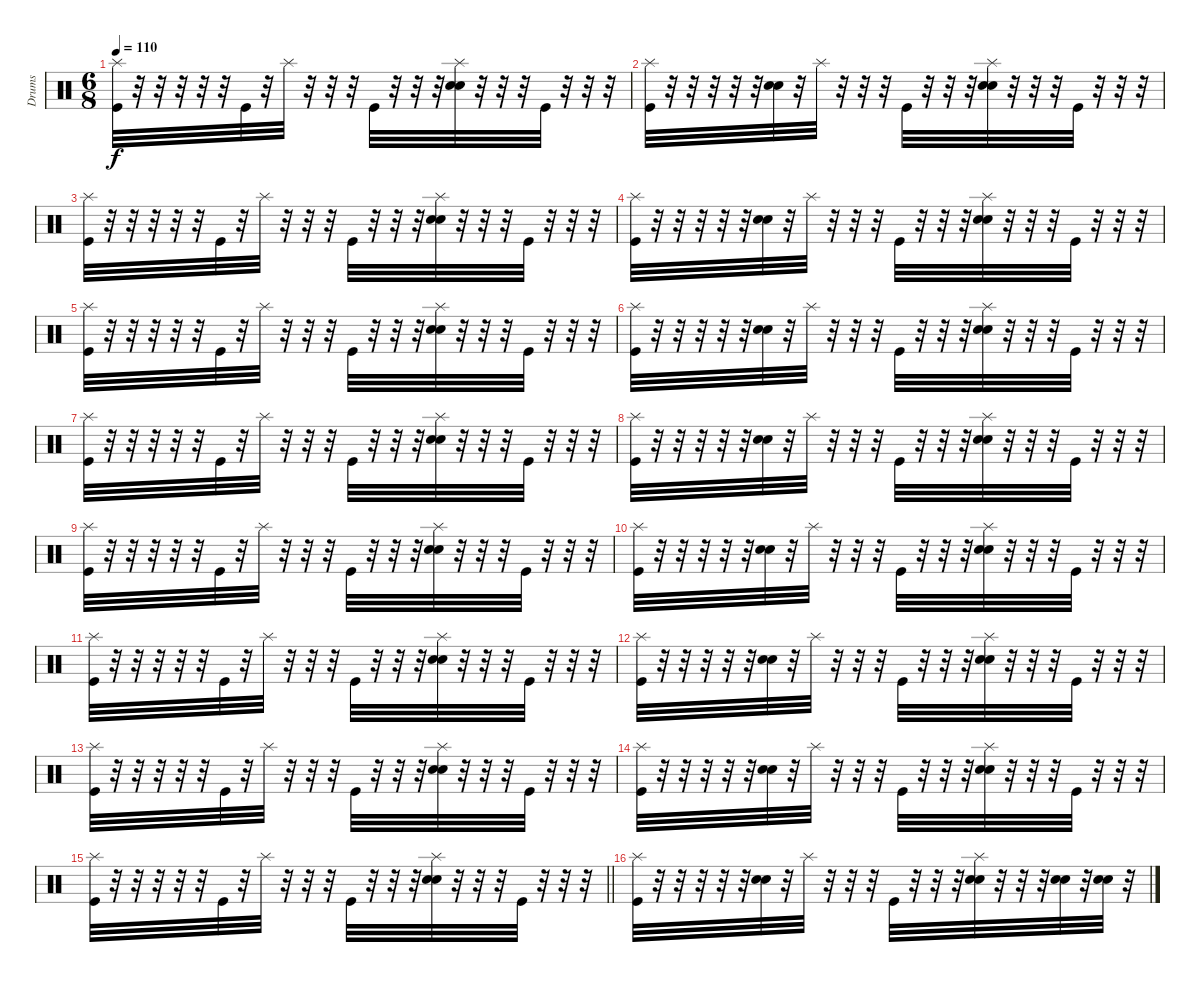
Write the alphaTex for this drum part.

\track ("Drums" "Drums") {instrument percussion}
\staff {score}
\articulation defaults
\ts (6 8)
\tempo 110
\clef neutral
\ks c
("Splash (hit)" "Kick (hit)").32{dy f} r.32 r.32 r.32 r.32 r.32 "Kick (hit)".32 r.32 "Splash (hit)".32 r.32 r.32 r.32 "Kick (hit)".32 r.32 r.32 r.32 ("Splash (hit)" "Electric Snare (hit)" "Electric Snare (hit)").32 r.32 r.32 r.32 "Kick (hit)".32 r.32 r.32 r.32 |
("Splash (hit)" "Kick (hit)").32 r.32 r.32 r.32 r.32 r.32 ("Electric Snare (hit)" "Electric Snare (hit)").32 r.32 "Splash (hit)".32 r.32 r.32 r.32 "Kick (hit)".32 r.32 r.32 r.32 ("Splash (hit)" "Electric Snare (hit)" "Electric Snare (hit)").32 r.32 r.32 r.32 "Kick (hit)".32 r.32 r.32 r.32 |
("Splash (hit)" "Kick (hit)").32 r.32 r.32 r.32 r.32 r.32 "Kick (hit)".32 r.32 "Splash (hit)".32 r.32 r.32 r.32 "Kick (hit)".32 r.32 r.32 r.32 ("Splash (hit)" "Electric Snare (hit)" "Electric Snare (hit)").32 r.32 r.32 r.32 "Kick (hit)".32 r.32 r.32 r.32 |
("Splash (hit)" "Kick (hit)").32 r.32 r.32 r.32 r.32 r.32 ("Electric Snare (hit)" "Electric Snare (hit)").32 r.32 "Splash (hit)".32 r.32 r.32 r.32 "Kick (hit)".32 r.32 r.32 r.32 ("Splash (hit)" "Electric Snare (hit)" "Electric Snare (hit)").32 r.32 r.32 r.32 "Kick (hit)".32 r.32 r.32 r.32 |
("Splash (hit)" "Kick (hit)").32 r.32 r.32 r.32 r.32 r.32 "Kick (hit)".32 r.32 "Splash (hit)".32 r.32 r.32 r.32 "Kick (hit)".32 r.32 r.32 r.32 ("Splash (hit)" "Electric Snare (hit)" "Electric Snare (hit)").32 r.32 r.32 r.32 "Kick (hit)".32 r.32 r.32 r.32 |
("Splash (hit)" "Kick (hit)").32 r.32 r.32 r.32 r.32 r.32 ("Electric Snare (hit)" "Electric Snare (hit)").32 r.32 "Splash (hit)".32 r.32 r.32 r.32 "Kick (hit)".32 r.32 r.32 r.32 ("Splash (hit)" "Electric Snare (hit)" "Electric Snare (hit)").32 r.32 r.32 r.32 "Kick (hit)".32 r.32 r.32 r.32 |
("Splash (hit)" "Kick (hit)").32 r.32 r.32 r.32 r.32 r.32 "Kick (hit)".32 r.32 "Splash (hit)".32 r.32 r.32 r.32 "Kick (hit)".32 r.32 r.32 r.32 ("Splash (hit)" "Electric Snare (hit)" "Electric Snare (hit)").32 r.32 r.32 r.32 "Kick (hit)".32 r.32 r.32 r.32 |
("Splash (hit)" "Kick (hit)").32 r.32 r.32 r.32 r.32 r.32 ("Electric Snare (hit)" "Electric Snare (hit)").32 r.32 "Splash (hit)".32 r.32 r.32 r.32 "Kick (hit)".32 r.32 r.32 r.32 ("Splash (hit)" "Electric Snare (hit)" "Electric Snare (hit)").32 r.32 r.32 r.32 "Kick (hit)".32 r.32 r.32 r.32 |
("Splash (hit)" "Kick (hit)").32 r.32 r.32 r.32 r.32 r.32 "Kick (hit)".32 r.32 "Splash (hit)".32 r.32 r.32 r.32 "Kick (hit)".32 r.32 r.32 r.32 ("Splash (hit)" "Electric Snare (hit)" "Electric Snare (hit)").32 r.32 r.32 r.32 "Kick (hit)".32 r.32 r.32 r.32 |
("Splash (hit)" "Kick (hit)").32 r.32 r.32 r.32 r.32 r.32 ("Electric Snare (hit)" "Electric Snare (hit)").32 r.32 "Splash (hit)".32 r.32 r.32 r.32 "Kick (hit)".32 r.32 r.32 r.32 ("Splash (hit)" "Electric Snare (hit)" "Electric Snare (hit)").32 r.32 r.32 r.32 "Kick (hit)".32 r.32 r.32 r.32 |
("Splash (hit)" "Kick (hit)").32 r.32 r.32 r.32 r.32 r.32 "Kick (hit)".32 r.32 "Splash (hit)".32 r.32 r.32 r.32 "Kick (hit)".32 r.32 r.32 r.32 ("Splash (hit)" "Electric Snare (hit)" "Electric Snare (hit)").32 r.32 r.32 r.32 "Kick (hit)".32 r.32 r.32 r.32 |
("Splash (hit)" "Kick (hit)").32 r.32 r.32 r.32 r.32 r.32 ("Electric Snare (hit)" "Electric Snare (hit)").32 r.32 "Splash (hit)".32 r.32 r.32 r.32 "Kick (hit)".32 r.32 r.32 r.32 ("Splash (hit)" "Electric Snare (hit)" "Electric Snare (hit)").32 r.32 r.32 r.32 "Kick (hit)".32 r.32 r.32 r.32 |
("Splash (hit)" "Kick (hit)").32 r.32 r.32 r.32 r.32 r.32 "Kick (hit)".32 r.32 "Splash (hit)".32 r.32 r.32 r.32 "Kick (hit)".32 r.32 r.32 r.32 ("Splash (hit)" "Electric Snare (hit)" "Electric Snare (hit)").32 r.32 r.32 r.32 "Kick (hit)".32 r.32 r.32 r.32 |
("Splash (hit)" "Kick (hit)").32 r.32 r.32 r.32 r.32 r.32 ("Electric Snare (hit)" "Electric Snare (hit)").32 r.32 "Splash (hit)".32 r.32 r.32 r.32 "Kick (hit)".32 r.32 r.32 r.32 ("Splash (hit)" "Electric Snare (hit)" "Electric Snare (hit)").32 r.32 r.32 r.32 "Kick (hit)".32 r.32 r.32 r.32 |
\barLineRight lightlight
("Splash (hit)" "Kick (hit)").32 r.32 r.32 r.32 r.32 r.32 "Kick (hit)".32 r.32 "Splash (hit)".32 r.32 r.32 r.32 "Kick (hit)".32 r.32 r.32 r.32 ("Splash (hit)" "Electric Snare (hit)" "Electric Snare (hit)").32 r.32 r.32 r.32 "Kick (hit)".32 r.32 r.32 r.32 |
("Splash (hit)" "Kick (hit)").32 r.32 r.32 r.32 r.32 r.32 ("Electric Snare (hit)" "Electric Snare (hit)").32 r.32 "Splash (hit)".32 r.32 r.32 r.32 "Kick (hit)".32 r.32 r.32 r.32 ("Splash (hit)" "Electric Snare (hit)" "Electric Snare (hit)").32 r.32 r.32 r.32 ("Electric Snare (hit)" "Electric Snare (hit)").32 r.32 ("Electric Snare (hit)" "Electric Snare (hit)").32 r.32
